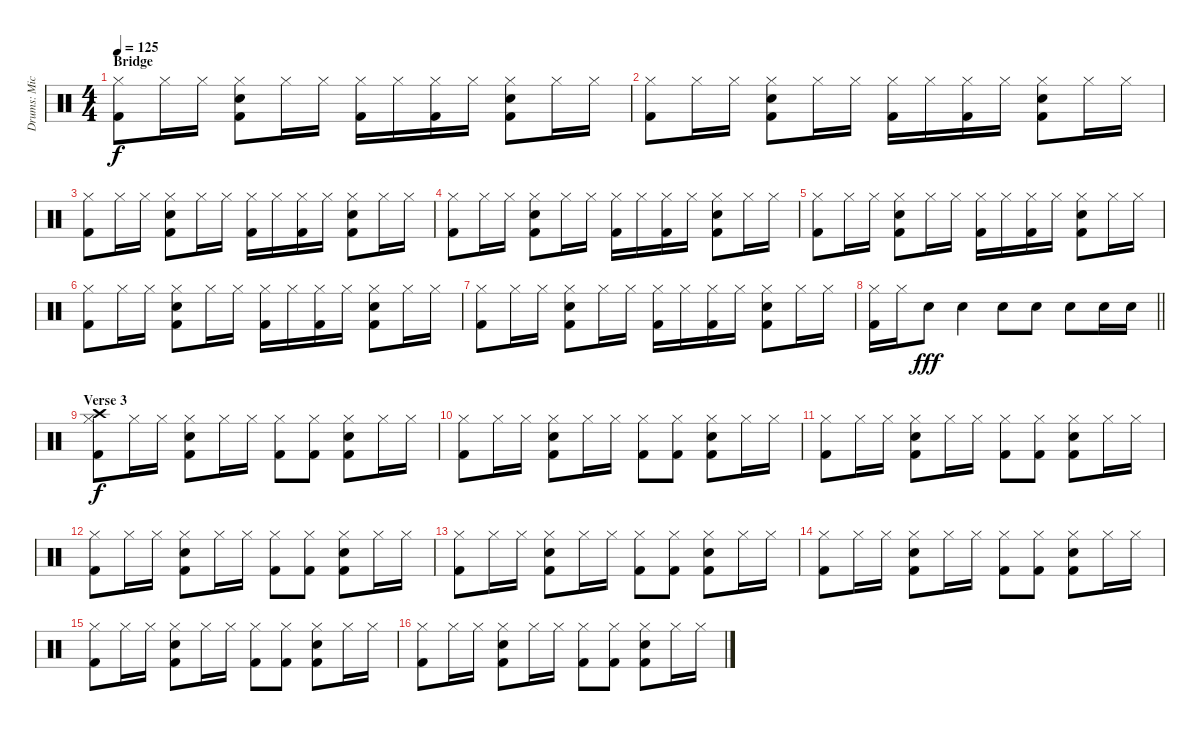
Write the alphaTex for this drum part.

\track ("Drums: Mick Fleetwood" "Drums: Mic") {instrument percussion}
\staff {score}
\articulation defaults
\ts (4 4)
\section ("" "Bridge")
\tempo 125
\clef neutral
\ks c
("Hi-Hat (closed)" "Kick (hit) 2").8{dy f} "Hi-Hat (closed)".16 "Hi-Hat (closed)".16 ("Hi-Hat (closed)" "Snare (hit) 2" "Kick (hit) 2").8 "Hi-Hat (closed)".16 "Hi-Hat (closed)".16 ("Hi-Hat (closed)" "Kick (hit) 2").16 "Hi-Hat (closed)".16 ("Hi-Hat (closed)" "Kick (hit) 2").16 "Hi-Hat (closed)".16 ("Hi-Hat (closed)" "Snare (hit) 2" "Kick (hit) 2").8 "Hi-Hat (closed)".16 "Hi-Hat (closed)".16 |
("Hi-Hat (closed)" "Kick (hit) 2").8 "Hi-Hat (closed)".16 "Hi-Hat (closed)".16 ("Hi-Hat (closed)" "Snare (hit) 2" "Kick (hit) 2").8 "Hi-Hat (closed)".16 "Hi-Hat (closed)".16 ("Hi-Hat (closed)" "Kick (hit) 2").16 "Hi-Hat (closed)".16 ("Hi-Hat (closed)" "Kick (hit) 2").16 "Hi-Hat (closed)".16 ("Hi-Hat (closed)" "Snare (hit) 2" "Kick (hit) 2").8 "Hi-Hat (closed)".16 "Hi-Hat (closed)".16 |
("Hi-Hat (closed)" "Kick (hit) 2").8 "Hi-Hat (closed)".16 "Hi-Hat (closed)".16 ("Hi-Hat (closed)" "Snare (hit) 2" "Kick (hit) 2").8 "Hi-Hat (closed)".16 "Hi-Hat (closed)".16 ("Hi-Hat (closed)" "Kick (hit) 2").16 "Hi-Hat (closed)".16 ("Hi-Hat (closed)" "Kick (hit) 2").16 "Hi-Hat (closed)".16 ("Hi-Hat (closed)" "Snare (hit) 2" "Kick (hit) 2").8 "Hi-Hat (closed)".16 "Hi-Hat (closed)".16 |
("Hi-Hat (closed)" "Kick (hit) 2").8 "Hi-Hat (closed)".16 "Hi-Hat (closed)".16 ("Hi-Hat (closed)" "Snare (hit) 2" "Kick (hit) 2").8 "Hi-Hat (closed)".16 "Hi-Hat (closed)".16 ("Hi-Hat (closed)" "Kick (hit) 2").16 "Hi-Hat (closed)".16 ("Hi-Hat (closed)" "Kick (hit) 2").16 "Hi-Hat (closed)".16 ("Hi-Hat (closed)" "Snare (hit) 2" "Kick (hit) 2").8 "Hi-Hat (closed)".16 "Hi-Hat (closed)".16 |
("Hi-Hat (closed)" "Kick (hit) 2").8 "Hi-Hat (closed)".16 "Hi-Hat (closed)".16 ("Hi-Hat (closed)" "Snare (hit) 2" "Kick (hit) 2").8 "Hi-Hat (closed)".16 "Hi-Hat (closed)".16 ("Hi-Hat (closed)" "Kick (hit) 2").16 "Hi-Hat (closed)".16 ("Hi-Hat (closed)" "Kick (hit) 2").16 "Hi-Hat (closed)".16 ("Hi-Hat (closed)" "Snare (hit) 2" "Kick (hit) 2").8 "Hi-Hat (closed)".16 "Hi-Hat (closed)".16 |
("Hi-Hat (closed)" "Kick (hit) 2").8 "Hi-Hat (closed)".16 "Hi-Hat (closed)".16 ("Hi-Hat (closed)" "Snare (hit) 2" "Kick (hit) 2").8 "Hi-Hat (closed)".16 "Hi-Hat (closed)".16 ("Hi-Hat (closed)" "Kick (hit) 2").16 "Hi-Hat (closed)".16 ("Hi-Hat (closed)" "Kick (hit) 2").16 "Hi-Hat (closed)".16 ("Hi-Hat (closed)" "Snare (hit) 2" "Kick (hit) 2").8 "Hi-Hat (closed)".16 "Hi-Hat (closed)".16 |
("Hi-Hat (closed)" "Kick (hit) 2").8 "Hi-Hat (closed)".16 "Hi-Hat (closed)".16 ("Hi-Hat (closed)" "Snare (hit) 2" "Kick (hit) 2").8 "Hi-Hat (closed)".16 "Hi-Hat (closed)".16 ("Hi-Hat (closed)" "Kick (hit) 2").16 "Hi-Hat (closed)".16 ("Hi-Hat (closed)" "Kick (hit) 2").16 "Hi-Hat (closed)".16 ("Hi-Hat (closed)" "Snare (hit) 2" "Kick (hit) 2").8 "Hi-Hat (closed)".16 "Hi-Hat (closed)".16 |
\barLineRight lightlight
("Hi-Hat (closed)" "Kick (hit) 2").16 "Hi-Hat (closed)".16 "Snare (hit) 2".8{dy fff} "Snare (hit) 2".4 "Snare (hit) 2".8 "Snare (hit) 2".8 "Snare (hit) 2".8 "Snare (hit) 2".16 "Snare (hit) 2".16 |
\section ("" "Verse 3")
("Crash high (hit)" "Hi-Hat (closed)" "Kick (hit) 2").8{dy f} "Hi-Hat (closed)".16 "Hi-Hat (closed)".16 ("Hi-Hat (closed)" "Snare (hit) 2" "Kick (hit) 2").8 "Hi-Hat (closed)".16 "Hi-Hat (closed)".16 ("Hi-Hat (closed)" "Kick (hit) 2").8 ("Hi-Hat (closed)" "Kick (hit) 2").8 ("Hi-Hat (closed)" "Snare (hit) 2" "Kick (hit) 2").8 "Hi-Hat (closed)".16 "Hi-Hat (closed)".16 |
("Hi-Hat (closed)" "Kick (hit) 2").8 "Hi-Hat (closed)".16 "Hi-Hat (closed)".16 ("Hi-Hat (closed)" "Snare (hit) 2" "Kick (hit) 2").8 "Hi-Hat (closed)".16 "Hi-Hat (closed)".16 ("Hi-Hat (closed)" "Kick (hit) 2").8 ("Hi-Hat (closed)" "Kick (hit) 2").8 ("Hi-Hat (closed)" "Snare (hit) 2" "Kick (hit) 2").8 "Hi-Hat (closed)".16 "Hi-Hat (closed)".16 |
("Hi-Hat (closed)" "Kick (hit) 2").8 "Hi-Hat (closed)".16 "Hi-Hat (closed)".16 ("Hi-Hat (closed)" "Snare (hit) 2" "Kick (hit) 2").8 "Hi-Hat (closed)".16 "Hi-Hat (closed)".16 ("Hi-Hat (closed)" "Kick (hit) 2").8 ("Hi-Hat (closed)" "Kick (hit) 2").8 ("Hi-Hat (closed)" "Snare (hit) 2" "Kick (hit) 2").8 "Hi-Hat (closed)".16 "Hi-Hat (closed)".16 |
("Hi-Hat (closed)" "Kick (hit) 2").8 "Hi-Hat (closed)".16 "Hi-Hat (closed)".16 ("Hi-Hat (closed)" "Snare (hit) 2" "Kick (hit) 2").8 "Hi-Hat (closed)".16 "Hi-Hat (closed)".16 ("Hi-Hat (closed)" "Kick (hit) 2").8 ("Hi-Hat (closed)" "Kick (hit) 2").8 ("Hi-Hat (closed)" "Snare (hit) 2" "Kick (hit) 2").8 "Hi-Hat (closed)".16 "Hi-Hat (closed)".16 |
("Hi-Hat (closed)" "Kick (hit) 2").8 "Hi-Hat (closed)".16 "Hi-Hat (closed)".16 ("Hi-Hat (closed)" "Snare (hit) 2" "Kick (hit) 2").8 "Hi-Hat (closed)".16 "Hi-Hat (closed)".16 ("Hi-Hat (closed)" "Kick (hit) 2").8 ("Hi-Hat (closed)" "Kick (hit) 2").8 ("Hi-Hat (closed)" "Snare (hit) 2" "Kick (hit) 2").8 "Hi-Hat (closed)".16 "Hi-Hat (closed)".16 |
("Hi-Hat (closed)" "Kick (hit) 2").8 "Hi-Hat (closed)".16 "Hi-Hat (closed)".16 ("Hi-Hat (closed)" "Snare (hit) 2" "Kick (hit) 2").8 "Hi-Hat (closed)".16 "Hi-Hat (closed)".16 ("Hi-Hat (closed)" "Kick (hit) 2").8 ("Hi-Hat (closed)" "Kick (hit) 2").8 ("Hi-Hat (closed)" "Snare (hit) 2" "Kick (hit) 2").8 "Hi-Hat (closed)".16 "Hi-Hat (closed)".16 |
("Hi-Hat (closed)" "Kick (hit) 2").8 "Hi-Hat (closed)".16 "Hi-Hat (closed)".16 ("Hi-Hat (closed)" "Snare (hit) 2" "Kick (hit) 2").8 "Hi-Hat (closed)".16 "Hi-Hat (closed)".16 ("Hi-Hat (closed)" "Kick (hit) 2").8 ("Hi-Hat (closed)" "Kick (hit) 2").8 ("Hi-Hat (closed)" "Snare (hit) 2" "Kick (hit) 2").8 "Hi-Hat (closed)".16 "Hi-Hat (closed)".16 |
("Hi-Hat (closed)" "Kick (hit) 2").8 "Hi-Hat (closed)".16 "Hi-Hat (closed)".16 ("Hi-Hat (closed)" "Snare (hit) 2" "Kick (hit) 2").8 "Hi-Hat (closed)".16 "Hi-Hat (closed)".16 ("Hi-Hat (closed)" "Kick (hit) 2").8 ("Hi-Hat (closed)" "Kick (hit) 2").8 ("Hi-Hat (closed)" "Snare (hit) 2" "Kick (hit) 2").8 "Hi-Hat (closed)".16 "Hi-Hat (closed)".16
